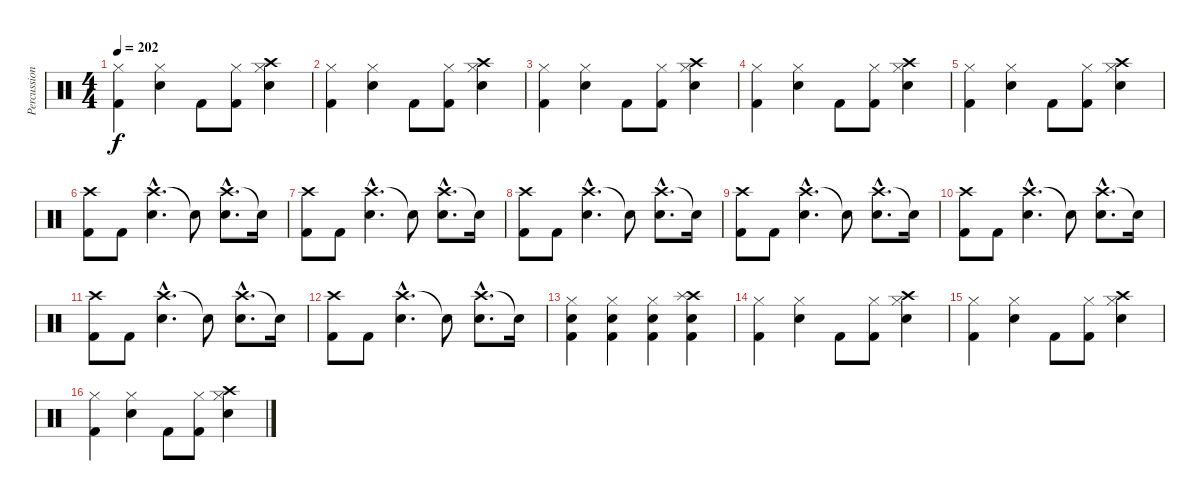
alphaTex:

\track ("Percussioni" "Percussion") {instrument percussion}
\staff {score}
\articulation defaults
\ts (4 4)
\tempo 202
\clef neutral
\ks c
("Hi-Hat (closed)" "Kick (hit) 2").4{dy f} ("Hi-Hat (closed)" "Snare (hit) 2").4 "Kick (hit) 2".8 ("Hi-Hat (closed)" "Kick (hit) 2").8 ("Hi-Hat (closed)" "Crash high (hit)" "Snare (hit) 2").4 |
("Hi-Hat (closed)" "Kick (hit) 2").4 ("Hi-Hat (closed)" "Snare (hit) 2").4 "Kick (hit) 2".8 ("Hi-Hat (closed)" "Kick (hit) 2").8 ("Hi-Hat (closed)" "Crash high (hit)" "Snare (hit) 2").4 |
("Hi-Hat (closed)" "Kick (hit) 2").4 ("Hi-Hat (closed)" "Snare (hit) 2").4 "Kick (hit) 2".8 ("Hi-Hat (closed)" "Kick (hit) 2").8 ("Hi-Hat (closed)" "Crash high (hit)" "Snare (hit) 2").4 |
("Hi-Hat (closed)" "Kick (hit) 2").4 ("Hi-Hat (closed)" "Snare (hit) 2").4 "Kick (hit) 2".8 ("Hi-Hat (closed)" "Kick (hit) 2").8 ("Hi-Hat (closed)" "Crash high (hit)" "Snare (hit) 2").4 |
("Hi-Hat (closed)" "Kick (hit) 2").4 ("Hi-Hat (closed)" "Snare (hit) 2").4 "Kick (hit) 2".8 ("Hi-Hat (closed)" "Kick (hit) 2").8 ("Hi-Hat (closed)" "Crash high (hit)" "Snare (hit) 2").4 |
("Crash high (hit)" "Kick (hit) 2").8 "Kick (hit) 2".8 ("Crash high (hit)"{hac} "Snare (hit) 2"{hac}).4{d} "Snare (hit) 2"{t}.8 ("Crash high (hit)"{hac} "Snare (hit) 2"{hac}).8{d} "Snare (hit)"{t}.16 |
("Crash high (hit)" "Kick (hit) 2").8 "Kick (hit) 2".8 ("Crash high (hit)"{hac} "Snare (hit) 2"{hac}).4{d} "Snare (hit) 2"{t}.8 ("Crash high (hit)"{hac} "Snare (hit) 2"{hac}).8{d} "Snare (hit)"{t}.16 |
("Crash high (hit)" "Kick (hit) 2").8 "Kick (hit) 2".8 ("Crash high (hit)"{hac} "Snare (hit) 2"{hac}).4{d} "Snare (hit) 2"{t}.8 ("Crash high (hit)"{hac} "Snare (hit) 2"{hac}).8{d} "Snare (hit)"{t}.16 |
("Crash high (hit)" "Kick (hit) 2").8 "Kick (hit) 2".8 ("Crash high (hit)"{hac} "Snare (hit) 2"{hac}).4{d} "Snare (hit) 2"{t}.8 ("Crash high (hit)"{hac} "Snare (hit) 2"{hac}).8{d} "Snare (hit)"{t}.16 |
("Crash high (hit)" "Kick (hit) 2").8 "Kick (hit) 2".8 ("Crash high (hit)"{hac} "Snare (hit) 2"{hac}).4{d} "Snare (hit) 2"{t}.8 ("Crash high (hit)"{hac} "Snare (hit) 2"{hac}).8{d} "Snare (hit)"{t}.16 |
("Crash high (hit)" "Kick (hit) 2").8 "Kick (hit) 2".8 ("Crash high (hit)"{hac} "Snare (hit) 2"{hac}).4{d} "Snare (hit) 2"{t}.8 ("Crash high (hit)"{hac} "Snare (hit) 2"{hac}).8{d} "Snare (hit)"{t}.16 |
("Crash high (hit)" "Kick (hit) 2").8 "Kick (hit) 2".8 ("Crash high (hit)"{hac} "Snare (hit) 2"{hac}).4{d} "Snare (hit) 2"{t}.8 ("Crash high (hit)"{hac} "Snare (hit) 2"{hac}).8{d} "Snare (hit)"{t}.16 |
("Hi-Hat (closed)" "Snare (hit) 2" "Kick (hit) 2").4 ("Hi-Hat (closed)" "Snare (hit) 2" "Kick (hit) 2").4 ("Hi-Hat (closed)" "Snare (hit) 2" "Kick (hit) 2").4 ("Crash high (hit)" "Splash (hit)" "Snare (hit) 2" "Kick (hit) 2").4 |
("Hi-Hat (closed)" "Kick (hit) 2").4 ("Hi-Hat (closed)" "Snare (hit) 2").4 "Kick (hit) 2".8 ("Hi-Hat (closed)" "Kick (hit) 2").8 ("Hi-Hat (closed)" "Crash high (hit)" "Snare (hit) 2").4 |
("Hi-Hat (closed)" "Kick (hit) 2").4 ("Hi-Hat (closed)" "Snare (hit) 2").4 "Kick (hit) 2".8 ("Hi-Hat (closed)" "Kick (hit) 2").8 ("Hi-Hat (closed)" "Crash high (hit)" "Snare (hit) 2").4 |
("Hi-Hat (closed)" "Kick (hit) 2").4 ("Hi-Hat (closed)" "Snare (hit) 2").4 "Kick (hit) 2".8 ("Hi-Hat (closed)" "Kick (hit) 2").8 ("Hi-Hat (closed)" "Crash high (hit)" "Snare (hit) 2").4
